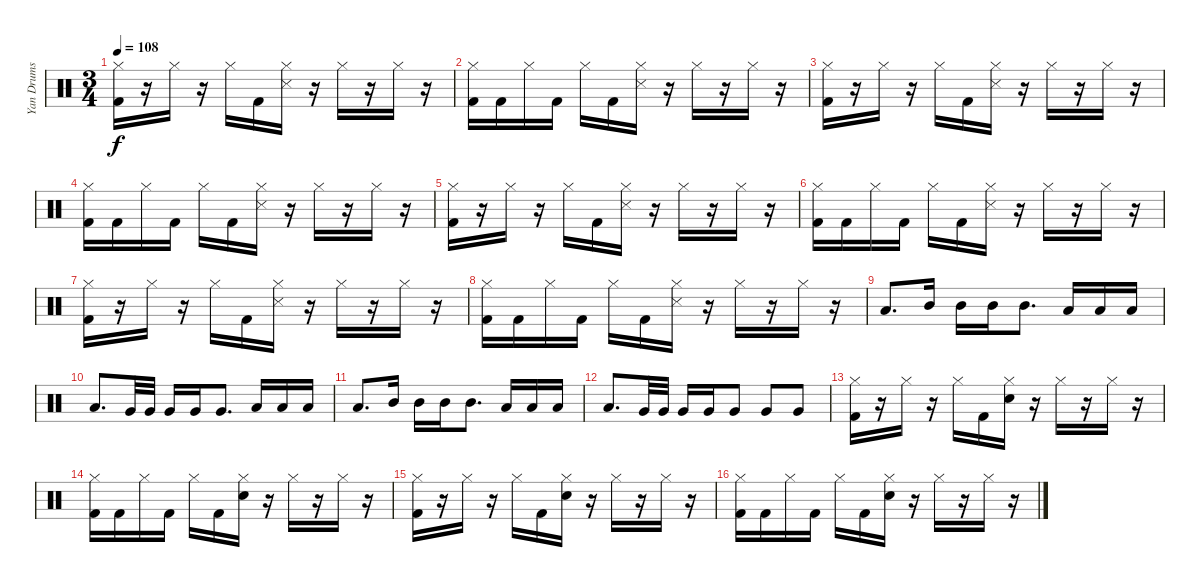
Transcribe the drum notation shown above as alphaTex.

\track ("Yan Drums" "Yan Drums") {instrument percussion}
\staff {score}
\articulation defaults
\ts (3 4)
\tempo 108
\clef neutral
\ks c
("Kick (hit) 2" "Hi-Hat (closed)").16{dy f} r.16 "Hi-Hat (closed)".16 r.16 "Hi-Hat (closed)".16 "Kick (hit) 2".16 ("Snare (side stick) 3" "Hi-Hat (closed)").16 r.16 "Hi-Hat (closed)".16 r.16 "Hi-Hat (closed)".16 r.16 |
("Kick (hit) 2" "Hi-Hat (closed)").16 "Kick (hit) 2".16 "Hi-Hat (closed)".16 "Kick (hit) 2".16 "Hi-Hat (closed)".16 "Kick (hit) 2".16 ("Snare (side stick) 3" "Hi-Hat (closed)").16 r.16 "Hi-Hat (closed)".16 r.16 "Hi-Hat (closed)".16 r.16 |
("Kick (hit) 2" "Hi-Hat (closed)").16 r.16 "Hi-Hat (closed)".16 r.16 "Hi-Hat (closed)".16 "Kick (hit) 2".16 ("Snare (side stick) 3" "Hi-Hat (closed)").16 r.16 "Hi-Hat (closed)".16 r.16 "Hi-Hat (closed)".16 r.16 |
("Kick (hit) 2" "Hi-Hat (closed)").16 "Kick (hit) 2".16 "Hi-Hat (closed)".16 "Kick (hit) 2".16 "Hi-Hat (closed)".16 "Kick (hit) 2".16 ("Snare (side stick) 3" "Hi-Hat (closed)").16 r.16 "Hi-Hat (closed)".16 r.16 "Hi-Hat (closed)".16 r.16 |
("Kick (hit) 2" "Hi-Hat (closed)").16 r.16 "Hi-Hat (closed)".16 r.16 "Hi-Hat (closed)".16 "Kick (hit) 2".16 ("Snare (side stick) 3" "Hi-Hat (closed)").16 r.16 "Hi-Hat (closed)".16 r.16 "Hi-Hat (closed)".16 r.16 |
("Kick (hit) 2" "Hi-Hat (closed)").16 "Kick (hit) 2".16 "Hi-Hat (closed)".16 "Kick (hit) 2".16 "Hi-Hat (closed)".16 "Kick (hit) 2".16 ("Snare (side stick) 3" "Hi-Hat (closed)").16 r.16 "Hi-Hat (closed)".16 r.16 "Hi-Hat (closed)".16 r.16 |
("Kick (hit) 2" "Hi-Hat (closed)").16 r.16 "Hi-Hat (closed)".16 r.16 "Hi-Hat (closed)".16 "Kick (hit) 2".16 ("Snare (side stick) 3" "Hi-Hat (closed)").16 r.16 "Hi-Hat (closed)".16 r.16 "Hi-Hat (closed)".16 r.16 |
("Kick (hit) 2" "Hi-Hat (closed)").16 "Kick (hit) 2".16 "Hi-Hat (closed)".16 "Kick (hit) 2".16 "Hi-Hat (closed)".16 "Kick (hit) 2".16 ("Snare (side stick) 3" "Hi-Hat (closed)").16 r.16 "Hi-Hat (closed)".16 r.16 "Hi-Hat (closed)".16 r.16 |
"Low Tom (hit)".8{d} "Mid Tom (hit)".16 "Mid Tom (hit)".16 "Mid Tom (hit)".16 "Mid Tom (hit)".8{d} "Low Tom (hit)".16 "Low Tom (hit)".16 "Low Tom (hit)".16 |
"Low Tom (hit)".8{d} "Very Low Tom (hit)".32 "Very Low Tom (hit)".32 "Very Low Tom (hit)".16 "Very Low Tom (hit)".16 "Very Low Tom (hit)".8{d} "Low Tom (hit)".16 "Low Tom (hit)".16 "Low Tom (hit)".16 |
"Low Tom (hit)".8{d} "Mid Tom (hit)".16 "Mid Tom (hit)".16 "Mid Tom (hit)".16 "Mid Tom (hit)".8{d} "Low Tom (hit)".16 "Low Tom (hit)".16 "Low Tom (hit)".16 |
"Low Tom (hit)".8{d} "Very Low Tom (hit)".32 "Very Low Tom (hit)".32 "Very Low Tom (hit)".16 "Very Low Tom (hit)".16 "Very Low Tom (hit)".8 "Very Low Tom (hit)".8 "Very Low Tom (hit)".8 |
("Kick (hit) 2" "Hi-Hat (closed)").16 r.16 "Hi-Hat (closed)".16 r.16 "Hi-Hat (closed)".16 "Kick (hit) 2".16 ("Electric Snare (hit)" "Hi-Hat (closed)").16 r.16 "Hi-Hat (closed)".16 r.16 "Hi-Hat (closed)".16 r.16 |
("Kick (hit) 2" "Hi-Hat (closed)").16 "Kick (hit) 2".16 "Hi-Hat (closed)".16 "Kick (hit) 2".16 "Hi-Hat (closed)".16 "Kick (hit) 2".16 ("Electric Snare (hit)" "Hi-Hat (closed)").16 r.16 "Hi-Hat (closed)".16 r.16 "Hi-Hat (closed)".16 r.16 |
("Kick (hit) 2" "Hi-Hat (closed)").16 r.16 "Hi-Hat (closed)".16 r.16 "Hi-Hat (closed)".16 "Kick (hit) 2".16 ("Electric Snare (hit)" "Hi-Hat (closed)").16 r.16 "Hi-Hat (closed)".16 r.16 "Hi-Hat (closed)".16 r.16 |
("Kick (hit) 2" "Hi-Hat (closed)").16 "Kick (hit) 2".16 "Hi-Hat (closed)".16 "Kick (hit) 2".16 "Hi-Hat (closed)".16 "Kick (hit) 2".16 ("Electric Snare (hit)" "Hi-Hat (closed)").16 r.16 "Hi-Hat (closed)".16 r.16 "Hi-Hat (closed)".16 r.16
